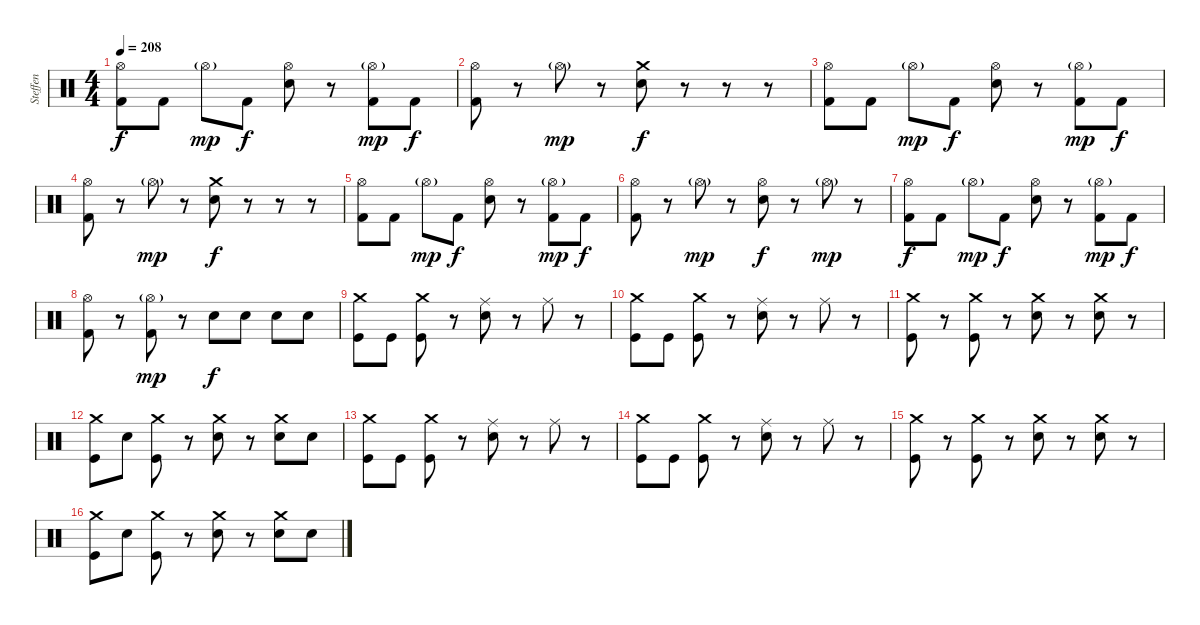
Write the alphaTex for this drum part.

\track ("Steffen" "Steffen") {instrument percussion}
\staff {score}
\articulation defaults
\ts (4 4)
\tempo 208
\clef neutral
\ks c
("Hi-Hat (open)" "Kick (hit) 2").8{dy f} "Kick (hit) 2".8 "Hi-Hat (open)"{g}.8{dy mp} "Kick (hit) 2".8{dy f} ("Hi-Hat (open)" "Snare (hit) 2").8 r.8 ("Hi-Hat (open)"{g} "Kick (hit) 2").8{dy mp} "Kick (hit) 2".8{dy f} |
("Hi-Hat (open)" "Kick (hit) 2").8 r.8 "Hi-Hat (open)"{g}.8{dy mp} r.8 ("Crash medium (hit)" "Snare (hit) 2").8{dy f} r.8 r.8 r.8 |
("Hi-Hat (open)" "Kick (hit) 2").8 "Kick (hit) 2".8 "Hi-Hat (open)"{g}.8{dy mp} "Kick (hit) 2".8{dy f} ("Hi-Hat (open)" "Snare (hit) 2").8 r.8 ("Hi-Hat (open)"{g} "Kick (hit) 2").8{dy mp} "Kick (hit) 2".8{dy f} |
("Hi-Hat (open)" "Kick (hit) 2").8 r.8 "Hi-Hat (open)"{g}.8{dy mp} r.8 ("Crash medium (hit)" "Snare (hit) 2").8{dy f} r.8 r.8 r.8 |
("Hi-Hat (open)" "Kick (hit) 2").8 "Kick (hit) 2".8 "Hi-Hat (open)"{g}.8{dy mp} "Kick (hit) 2".8{dy f} ("Hi-Hat (open)" "Snare (hit) 2").8 r.8 ("Hi-Hat (open)"{g} "Kick (hit) 2").8{dy mp} "Kick (hit) 2".8{dy f} |
("Hi-Hat (open)" "Kick (hit) 2").8 r.8 "Hi-Hat (open)"{g}.8{dy mp} r.8 ("Hi-Hat (open)" "Snare (hit) 2").8{dy f} r.8 "Hi-Hat (open)"{g}.8{dy mp} r.8 |
("Hi-Hat (open)" "Kick (hit) 2").8{dy f} "Kick (hit) 2".8 "Hi-Hat (open)"{g}.8{dy mp} "Kick (hit) 2".8{dy f} ("Hi-Hat (open)" "Snare (hit) 2").8 r.8 ("Hi-Hat (open)"{g} "Kick (hit) 2").8{dy mp} "Kick (hit) 2".8{dy f} |
("Hi-Hat (open)" "Kick (hit) 2").8 r.8 ("Hi-Hat (open)"{g} "Kick (hit) 2").8{dy mp} r.8 "Snare (hit) 2".8{dy f} "Snare (hit) 2".8 "Snare (hit) 2".8 "Snare (hit) 2".8 |
("Crash medium (hit)" "Kick (hit)").8 "Kick (hit)".8 ("Crash medium (hit)" "Kick (hit)").8 r.8 ("Ride (middle)" "Electric Snare (hit)").8 r.8 "Ride (middle)".8 r.8 |
("Crash medium (hit)" "Kick (hit)").8 "Kick (hit)".8 ("Crash medium (hit)" "Kick (hit)").8 r.8 ("Ride (middle)" "Electric Snare (hit)").8 r.8 "Ride (middle)".8 r.8 |
("Crash medium (hit)" "Kick (hit)").8 r.8 ("Crash medium (hit)" "Kick (hit)").8 r.8 ("Crash medium (hit)" "Electric Snare (hit)").8 r.8 ("Crash medium (hit)" "Electric Snare (hit)").8 r.8 |
("Crash medium (hit)" "Kick (hit)").8 "Electric Snare (hit)".8 ("Crash medium (hit)" "Kick (hit)").8 r.8 ("Crash medium (hit)" "Electric Snare (hit)").8 r.8 ("Crash medium (hit)" "Electric Snare (hit)").8 "Electric Snare (hit)".8 |
("Crash medium (hit)" "Kick (hit)").8 "Kick (hit)".8 ("Crash medium (hit)" "Kick (hit)").8 r.8 ("Ride (middle)" "Electric Snare (hit)").8 r.8 "Ride (middle)".8 r.8 |
("Crash medium (hit)" "Kick (hit)").8 "Kick (hit)".8 ("Crash medium (hit)" "Kick (hit)").8 r.8 ("Ride (middle)" "Electric Snare (hit)").8 r.8 "Ride (middle)".8 r.8 |
("Crash medium (hit)" "Kick (hit)").8 r.8 ("Crash medium (hit)" "Kick (hit)").8 r.8 ("Crash medium (hit)" "Electric Snare (hit)").8 r.8 ("Crash medium (hit)" "Electric Snare (hit)").8 r.8 |
("Crash medium (hit)" "Kick (hit)").8 "Electric Snare (hit)".8 ("Crash medium (hit)" "Kick (hit)").8 r.8 ("Crash medium (hit)" "Electric Snare (hit)").8 r.8 ("Crash medium (hit)" "Electric Snare (hit)").8 "Electric Snare (hit)".8
